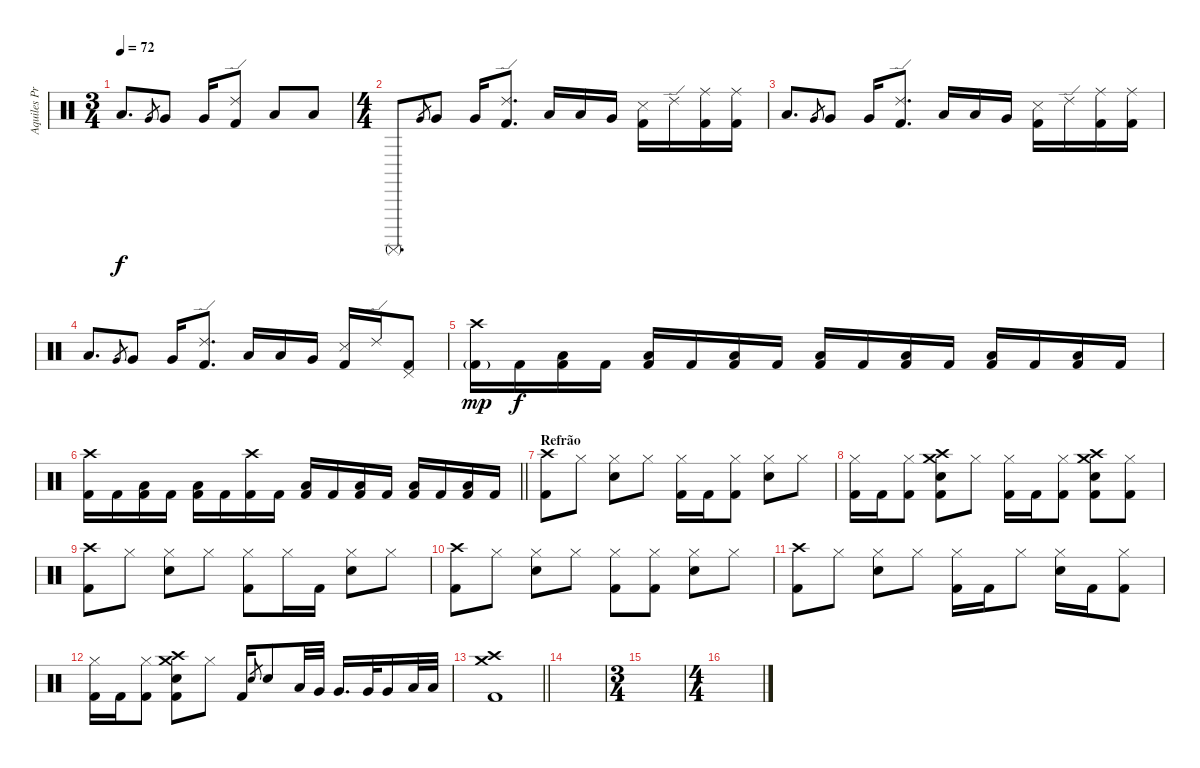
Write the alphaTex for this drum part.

\track ("Aquiles Priester" "Aquiles Pr") {instrument percussion}
\staff {score}
\articulation defaults
\ts (3 4)
\tempo 72
\clef neutral
\ks c "Low Tom (hit)".8{d dy f} "Very Low Tom (hit)".8{gr} "Very Low Tom (hit)".8 "Very Low Tom (hit)".16
("Ride (edge) 2" "Kick (hit) 2").8 "Low Tom (hit)".8 "Low Tom (hit)".8 |
\ts (4 4)
"Surdo (mute)".8{d} "Very Low Tom (hit)".8{gr} "Very Low Tom (hit)".8 "Very Low Tom (hit)".16 ("Ride (edge) 2" "Kick (hit) 2").8{d} "Low Tom (hit)".16 "Low Tom (hit)".16 "Very Low Tom (hit)".16 ("Snare (side stick) 3" "Kick (hit) 2").16 "Ride (edge) 2".16 ("Ride (middle)" "Kick (hit) 2").16 ("Ride (middle)" "Kick (hit) 2").16 |
"Low Tom (hit)".8{d} "Very Low Tom (hit)".8{gr} "Very Low Tom (hit)".8 "Very Low Tom (hit)".16 ("Ride (edge) 2" "Kick (hit) 2").8{d} "Low Tom (hit)".16 "Low Tom (hit)".16 "Very Low Tom (hit)".16 ("Snare (side stick) 3" "Kick (hit) 2").16 "Ride (edge) 2".16 ("Ride (middle)" "Kick (hit) 2").16 ("Ride (middle)" "Kick (hit) 2").16 |
"Low Tom (hit)".8{d} "Very Low Tom (hit)".8{gr} "Very Low Tom (hit)".8 "Very Low Tom (hit)".16 ("Ride (edge) 2" "Kick (hit) 2").8{d} "Low Tom (hit)".16 "Low Tom (hit)".16 "Very Low Tom (hit)".16 ("Snare (side stick) 3" "Kick (hit) 2").16 "Ride (edge) 2".16 ("Pedal Hi-Hat (hit)" "Kick (hit) 2").8 |
("Crash high (hit)" "Kick (hit) 2"{g}).16{dy mp} "Kick (hit) 2".16{dy f volume 6} ("Low Tom (hit)" "Kick (hit) 2").16{volume 16} "Kick (hit) 2".16 ("Low Tom (hit)" "Kick (hit) 2").16 "Kick (hit) 2".16 ("Low Tom (hit)" "Kick (hit) 2").16 "Kick (hit) 2".16 ("Low Tom (hit)" "Kick (hit) 2").16 "Kick (hit) 2".16 ("Low Tom (hit)" "Kick (hit) 2").16 "Kick (hit) 2".16 ("Low Tom (hit)" "Kick (hit) 2").16 "Kick (hit) 2".16 ("Low Tom (hit)" "Kick (hit) 2").16 "Kick (hit) 2".16 |
\barLineRight lightlight
("Crash high (hit)" "Kick (hit) 2").16 "Kick (hit) 2".16 ("Low Tom (hit)" "Kick (hit) 2").16 "Kick (hit) 2".16 ("Low Tom (hit)" "Kick (hit) 2").16 "Kick (hit) 2".16 ("Crash high (hit)" "Kick (hit) 2").16 "Kick (hit) 2".16 ("Low Tom (hit)" "Kick (hit) 2").16 "Kick (hit) 2".16 ("Low Tom (hit)" "Kick (hit) 2").16 "Kick (hit) 2".16 ("Low Tom (hit)" "Kick (hit) 2").16 "Kick (hit) 2".16 ("Low Tom (hit)" "Kick (hit) 2").16 "Kick (hit) 2".16 |
\section ("" "Refrão")
("Crash high (hit)" "Kick (hit) 2").8 "Hi-Hat (closed)".8 ("Hi-Hat (closed)" "Electric Snare (hit)").8 "Hi-Hat (closed)".8 ("Hi-Hat (closed)" "Kick (hit) 2").16 "Kick (hit) 2".16 ("Hi-Hat (closed)" "Kick (hit) 2").8 ("Hi-Hat (closed)" "Electric Snare (hit)").8 "Hi-Hat (closed)".8 |
("Hi-Hat (closed)" "Kick (hit) 2").16 "Kick (hit) 2".16 ("Hi-Hat (closed)" "Kick (hit) 2").8 ("Crash high (hit)" "Crash medium (hit)" "Electric Snare (hit)" "Kick (hit) 2").8 "Hi-Hat (closed)".8 ("Hi-Hat (closed)" "Kick (hit) 2").16 "Kick (hit) 2".16 ("Hi-Hat (closed)" "Kick (hit) 2").8 ("Crash high (hit)" "Crash medium (hit)" "Electric Snare (hit)" "Kick (hit) 2").8 ("Hi-Hat (closed)" "Kick (hit) 2").8 |
("Crash high (hit)" "Kick (hit) 2").8 "Hi-Hat (closed)".8 ("Hi-Hat (closed)" "Electric Snare (hit)").8 "Hi-Hat (closed)".8 ("Hi-Hat (closed)" "Kick (hit) 2").8 "Hi-Hat (closed)".16 "Kick (hit) 2".16 ("Hi-Hat (closed)" "Electric Snare (hit)").8 "Hi-Hat (closed)".8 |
("Crash high (hit)" "Kick (hit) 2").8 "Hi-Hat (closed)".8 ("Hi-Hat (closed)" "Electric Snare (hit)").8 "Hi-Hat (closed)".8 ("Hi-Hat (closed)" "Kick (hit) 2").8 ("Hi-Hat (closed)" "Kick (hit) 2").8 ("Hi-Hat (closed)" "Electric Snare (hit)").8 "Hi-Hat (closed)".8 |
("Crash high (hit)" "Kick (hit) 2").8 "Hi-Hat (closed)".8 ("Hi-Hat (closed)" "Electric Snare (hit)").8 "Hi-Hat (closed)".8 ("Hi-Hat (closed)" "Kick (hit) 2").16 "Kick (hit) 2".16 "Hi-Hat (closed)".8 ("Hi-Hat (closed)" "Electric Snare (hit)").16 "Kick (hit) 2".16 ("Hi-Hat (closed)" "Kick (hit) 2").8 |
("Hi-Hat (closed)" "Kick (hit) 2").16 "Kick (hit) 2".16 ("Hi-Hat (closed)" "Kick (hit) 2").8 ("Crash high (hit)" "Crash medium (hit)" "Electric Snare (hit)" "Kick (hit) 2").8 "Hi-Hat (closed)".8 "Kick (hit) 2".16 "Electric Snare (hit)".8{gr} "Electric Snare (hit)".8 "Low Tom (hit)".32 "Very Low Tom (hit)".32 "Very Low Tom (hit)".16{d} "Very Low Tom (hit)".32 "Very Low Tom (hit)".16 "Low Tom (hit)".32 "Low Tom (hit)".32 |
\barLineRight lightlight
("Crash high (hit)" "Crash medium (hit)" "Kick (hit) 2").1 |
|
\ts (3 4)
|
\ts (4 4)
